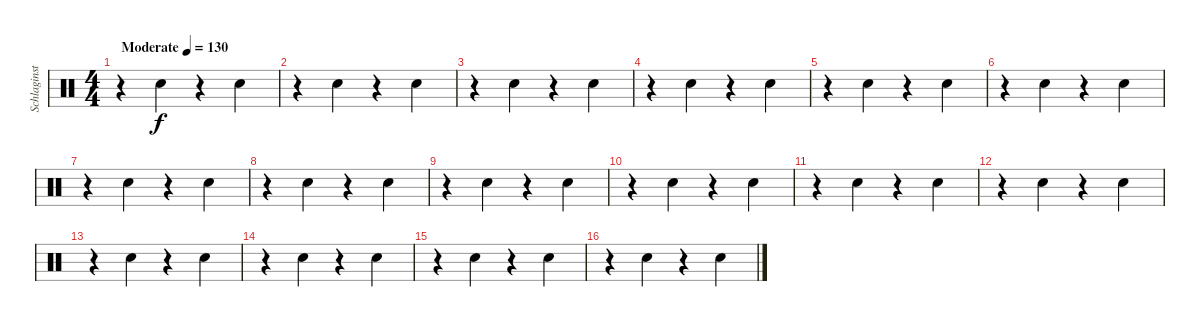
\track ("Schlaginstrumente - Auswahl" "Schlaginst") {instrument percussion}
\staff {score}
\articulation defaults
\ts (4 4)
\tempo (130 "Moderate")
\clef neutral
\ks c
r.4{dy f} "Snare (hit) 2".4 r.4 "Snare (hit) 2".4 |
r.4 "Snare (hit) 2".4 r.4 "Snare (hit) 2".4 |
r.4 "Snare (hit) 2".4 r.4 "Snare (hit) 2".4 |
r.4 "Snare (hit) 2".4 r.4 "Snare (hit) 2".4 |
r.4 "Snare (hit) 2".4 r.4 "Snare (hit) 2".4 |
r.4 "Snare (hit) 2".4 r.4 "Snare (hit) 2".4 |
r.4 "Snare (hit) 2".4 r.4 "Snare (hit) 2".4 |
r.4 "Snare (hit) 2".4 r.4 "Snare (hit) 2".4 |
r.4 "Snare (hit) 2".4 r.4 "Snare (hit) 2".4 |
r.4 "Snare (hit) 2".4 r.4 "Snare (hit) 2".4 |
r.4 "Snare (hit) 2".4 r.4 "Snare (hit) 2".4 |
r.4 "Snare (hit) 2".4 r.4 "Snare (hit) 2".4 |
r.4 "Snare (hit) 2".4 r.4 "Snare (hit) 2".4 |
r.4 "Snare (hit) 2".4 r.4 "Snare (hit) 2".4 |
r.4 "Snare (hit) 2".4 r.4 "Snare (hit) 2".4 |
r.4 "Snare (hit) 2".4 r.4 "Snare (hit) 2".4
